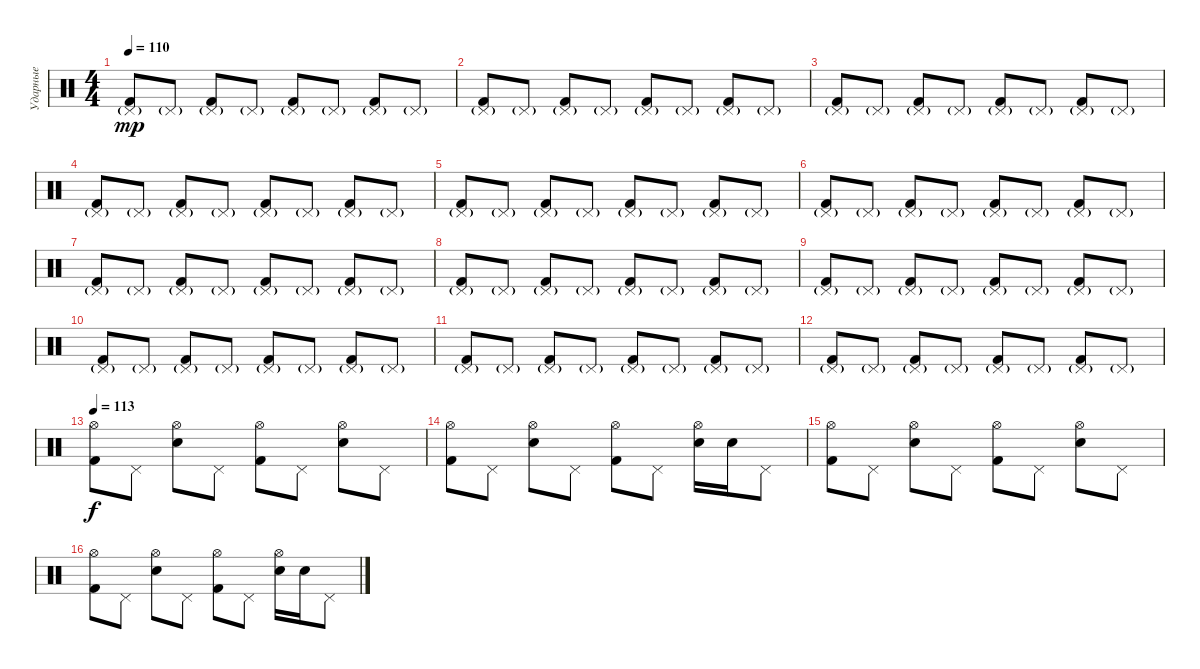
\track ("Ударные" "Ударные") {instrument percussion}
\staff {score}
\articulation defaults
\ts (4 4)
\tempo 110
\clef neutral
\ks c
("Kick (hit) 2" "Pedal Hi-Hat (hit)"{g}).8{dy mp} "Pedal Hi-Hat (hit)"{g}.8 ("Kick (hit) 2" "Pedal Hi-Hat (hit)"{g}).8 "Pedal Hi-Hat (hit)"{g}.8 ("Kick (hit) 2" "Pedal Hi-Hat (hit)"{g}).8 "Pedal Hi-Hat (hit)"{g}.8 ("Kick (hit) 2" "Pedal Hi-Hat (hit)"{g}).8 "Pedal Hi-Hat (hit)"{g}.8 |
("Kick (hit) 2" "Pedal Hi-Hat (hit)"{g}).8 "Pedal Hi-Hat (hit)"{g}.8 ("Kick (hit) 2" "Pedal Hi-Hat (hit)"{g}).8 "Pedal Hi-Hat (hit)"{g}.8 ("Kick (hit) 2" "Pedal Hi-Hat (hit)"{g}).8 "Pedal Hi-Hat (hit)"{g}.8 ("Kick (hit) 2" "Pedal Hi-Hat (hit)"{g}).8 "Pedal Hi-Hat (hit)"{g}.8 |
("Kick (hit) 2" "Pedal Hi-Hat (hit)"{g}).8 "Pedal Hi-Hat (hit)"{g}.8 ("Kick (hit) 2" "Pedal Hi-Hat (hit)"{g}).8 "Pedal Hi-Hat (hit)"{g}.8 ("Kick (hit) 2" "Pedal Hi-Hat (hit)"{g}).8 "Pedal Hi-Hat (hit)"{g}.8 ("Kick (hit) 2" "Pedal Hi-Hat (hit)"{g}).8 "Pedal Hi-Hat (hit)"{g}.8 |
("Kick (hit) 2" "Pedal Hi-Hat (hit)"{g}).8 "Pedal Hi-Hat (hit)"{g}.8 ("Kick (hit) 2" "Pedal Hi-Hat (hit)"{g}).8 "Pedal Hi-Hat (hit)"{g}.8 ("Kick (hit) 2" "Pedal Hi-Hat (hit)"{g}).8 "Pedal Hi-Hat (hit)"{g}.8 ("Kick (hit) 2" "Pedal Hi-Hat (hit)"{g}).8 "Pedal Hi-Hat (hit)"{g}.8 |
("Kick (hit) 2" "Pedal Hi-Hat (hit)"{g}).8 "Pedal Hi-Hat (hit)"{g}.8 ("Kick (hit) 2" "Pedal Hi-Hat (hit)"{g}).8 "Pedal Hi-Hat (hit)"{g}.8 ("Kick (hit) 2" "Pedal Hi-Hat (hit)"{g}).8 "Pedal Hi-Hat (hit)"{g}.8 ("Kick (hit) 2" "Pedal Hi-Hat (hit)"{g}).8 "Pedal Hi-Hat (hit)"{g}.8 |
("Kick (hit) 2" "Pedal Hi-Hat (hit)"{g}).8 "Pedal Hi-Hat (hit)"{g}.8 ("Kick (hit) 2" "Pedal Hi-Hat (hit)"{g}).8 "Pedal Hi-Hat (hit)"{g}.8 ("Kick (hit) 2" "Pedal Hi-Hat (hit)"{g}).8 "Pedal Hi-Hat (hit)"{g}.8 ("Kick (hit) 2" "Pedal Hi-Hat (hit)"{g}).8 "Pedal Hi-Hat (hit)"{g}.8 |
("Kick (hit) 2" "Pedal Hi-Hat (hit)"{g}).8 "Pedal Hi-Hat (hit)"{g}.8 ("Kick (hit) 2" "Pedal Hi-Hat (hit)"{g}).8 "Pedal Hi-Hat (hit)"{g}.8 ("Kick (hit) 2" "Pedal Hi-Hat (hit)"{g}).8 "Pedal Hi-Hat (hit)"{g}.8 ("Kick (hit) 2" "Pedal Hi-Hat (hit)"{g}).8 "Pedal Hi-Hat (hit)"{g}.8 |
("Kick (hit) 2" "Pedal Hi-Hat (hit)"{g}).8 "Pedal Hi-Hat (hit)"{g}.8 ("Kick (hit) 2" "Pedal Hi-Hat (hit)"{g}).8 "Pedal Hi-Hat (hit)"{g}.8 ("Kick (hit) 2" "Pedal Hi-Hat (hit)"{g}).8 "Pedal Hi-Hat (hit)"{g}.8 ("Kick (hit) 2" "Pedal Hi-Hat (hit)"{g}).8 "Pedal Hi-Hat (hit)"{g}.8 |
("Kick (hit) 2" "Pedal Hi-Hat (hit)"{g}).8 "Pedal Hi-Hat (hit)"{g}.8 ("Kick (hit) 2" "Pedal Hi-Hat (hit)"{g}).8 "Pedal Hi-Hat (hit)"{g}.8 ("Kick (hit) 2" "Pedal Hi-Hat (hit)"{g}).8 "Pedal Hi-Hat (hit)"{g}.8 ("Kick (hit) 2" "Pedal Hi-Hat (hit)"{g}).8 "Pedal Hi-Hat (hit)"{g}.8 |
("Kick (hit) 2" "Pedal Hi-Hat (hit)"{g}).8 "Pedal Hi-Hat (hit)"{g}.8 ("Kick (hit) 2" "Pedal Hi-Hat (hit)"{g}).8 "Pedal Hi-Hat (hit)"{g}.8 ("Kick (hit) 2" "Pedal Hi-Hat (hit)"{g}).8 "Pedal Hi-Hat (hit)"{g}.8 ("Kick (hit) 2" "Pedal Hi-Hat (hit)"{g}).8 "Pedal Hi-Hat (hit)"{g}.8 |
("Kick (hit) 2" "Pedal Hi-Hat (hit)"{g}).8 "Pedal Hi-Hat (hit)"{g}.8 ("Kick (hit) 2" "Pedal Hi-Hat (hit)"{g}).8 "Pedal Hi-Hat (hit)"{g}.8 ("Kick (hit) 2" "Pedal Hi-Hat (hit)"{g}).8 "Pedal Hi-Hat (hit)"{g}.8 ("Kick (hit) 2" "Pedal Hi-Hat (hit)"{g}).8 "Pedal Hi-Hat (hit)"{g}.8 |
("Kick (hit) 2" "Pedal Hi-Hat (hit)"{g}).8 "Pedal Hi-Hat (hit)"{g}.8 ("Kick (hit) 2" "Pedal Hi-Hat (hit)"{g}).8 "Pedal Hi-Hat (hit)"{g}.8 ("Kick (hit) 2" "Pedal Hi-Hat (hit)"{g}).8 "Pedal Hi-Hat (hit)"{g}.8 ("Kick (hit) 2" "Pedal Hi-Hat (hit)"{g}).8 "Pedal Hi-Hat (hit)"{g}.8 |
\tempo 113
("Kick (hit) 2" "Hi-Hat (open)").8{dy f} "Pedal Hi-Hat (hit)".8 ("Electric Snare (hit)" "Hi-Hat (open)").8 "Pedal Hi-Hat (hit)".8 ("Kick (hit) 2" "Hi-Hat (open)").8 "Pedal Hi-Hat (hit)".8 ("Electric Snare (hit)" "Hi-Hat (open)").8 "Pedal Hi-Hat (hit)".8 |
("Kick (hit) 2" "Hi-Hat (open)").8 "Pedal Hi-Hat (hit)".8 ("Electric Snare (hit)" "Hi-Hat (open)").8 "Pedal Hi-Hat (hit)".8 ("Kick (hit) 2" "Hi-Hat (open)").8 "Pedal Hi-Hat (hit)".8 ("Electric Snare (hit)" "Hi-Hat (open)").16 "Electric Snare (hit)".16 "Pedal Hi-Hat (hit)".8 |
("Kick (hit) 2" "Hi-Hat (open)").8 "Pedal Hi-Hat (hit)".8 ("Electric Snare (hit)" "Hi-Hat (open)").8 "Pedal Hi-Hat (hit)".8 ("Kick (hit) 2" "Hi-Hat (open)").8 "Pedal Hi-Hat (hit)".8 ("Electric Snare (hit)" "Hi-Hat (open)").8 "Pedal Hi-Hat (hit)".8 |
("Kick (hit) 2" "Hi-Hat (open)").8 "Pedal Hi-Hat (hit)".8 ("Electric Snare (hit)" "Hi-Hat (open)").8 "Pedal Hi-Hat (hit)".8 ("Kick (hit) 2" "Hi-Hat (open)").8 "Pedal Hi-Hat (hit)".8 ("Electric Snare (hit)" "Hi-Hat (open)").16 "Electric Snare (hit)".16 "Pedal Hi-Hat (hit)".8
